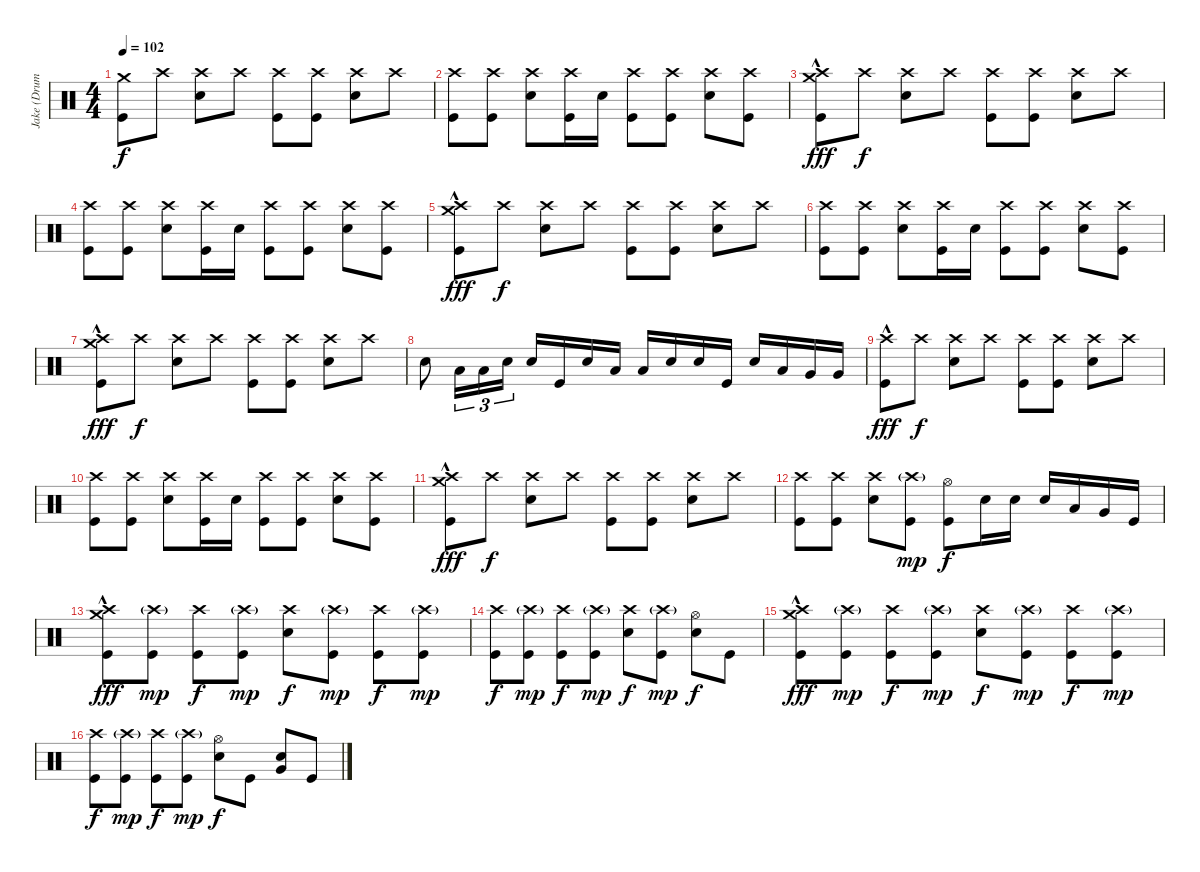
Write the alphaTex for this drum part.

\track ("Jake (Drums)" "Jake (Drum") {instrument percussion}
\staff {score}
\articulation defaults
\ts (4 4)
\tempo 102
\clef neutral
\ks c
("Crash medium (hit)" "Kick (hit)").8{dy f} "Crash high (hit)".8 ("Crash high (hit)" "Snare (hit) 2").8 "Crash high (hit)".8 ("Crash high (hit)" "Kick (hit)").8 ("Crash high (hit)" "Kick (hit)").8 ("Crash high (hit)" "Snare (hit) 2").8 "Crash high (hit)".8 |
("Crash high (hit)" "Kick (hit)").8 ("Crash high (hit)" "Kick (hit)").8 ("Crash high (hit)" "Snare (hit) 2").8 ("Crash high (hit)" "Kick (hit)").16 "Snare (hit) 2".16 ("Crash high (hit)" "Kick (hit)").8 ("Crash high (hit)" "Kick (hit)").8 ("Crash high (hit)" "Snare (hit) 2").8 ("Crash high (hit)" "Kick (hit)").8 |
("Crash high (hit)"{hac} "Crash medium (hit)" "Kick (hit)").8{dy fff} "Crash high (hit)".8{dy f} ("Crash high (hit)" "Snare (hit) 2").8 "Crash high (hit)".8 ("Crash high (hit)" "Kick (hit)").8 ("Crash high (hit)" "Kick (hit)").8 ("Crash high (hit)" "Snare (hit) 2").8 "Crash high (hit)".8 |
("Crash high (hit)" "Kick (hit)").8 ("Crash high (hit)" "Kick (hit)").8 ("Crash high (hit)" "Snare (hit) 2").8 ("Crash high (hit)" "Kick (hit)").16 "Snare (hit) 2".16 ("Crash high (hit)" "Kick (hit)").8 ("Crash high (hit)" "Kick (hit)").8 ("Crash high (hit)" "Snare (hit) 2").8 ("Crash high (hit)" "Kick (hit)").8 |
("Crash high (hit)"{hac} "Crash medium (hit)" "Kick (hit)").8{dy fff} "Crash high (hit)".8{dy f} ("Crash high (hit)" "Snare (hit) 2").8 "Crash high (hit)".8 ("Crash high (hit)" "Kick (hit)").8 ("Crash high (hit)" "Kick (hit)").8 ("Crash high (hit)" "Snare (hit) 2").8 "Crash high (hit)".8 |
("Crash high (hit)" "Kick (hit)").8 ("Crash high (hit)" "Kick (hit)").8 ("Crash high (hit)" "Snare (hit) 2").8 ("Crash high (hit)" "Kick (hit)").16 "Snare (hit) 2".16 ("Crash high (hit)" "Kick (hit)").8 ("Crash high (hit)" "Kick (hit)").8 ("Crash high (hit)" "Snare (hit) 2").8 ("Crash high (hit)" "Kick (hit)").8 |
("Crash high (hit)"{hac} "Crash medium (hit)" "Kick (hit)").8{dy fff} "Crash high (hit)".8{dy f} ("Crash high (hit)" "Snare (hit) 2").8 "Crash high (hit)".8 ("Crash high (hit)" "Kick (hit)").8 ("Crash high (hit)" "Kick (hit)").8 ("Crash high (hit)" "Snare (hit) 2").8 "Crash high (hit)".8 |
"Snare (hit) 2".8 "Low Tom (hit)".16{tu (3 2)} "Low Tom (hit)".16{tu (3 2)} "Snare (hit) 2".16{tu (3 2)} "Snare (hit) 2".16 "Kick (hit)".16 "Snare (hit) 2".16 "Low Tom (hit)".16 "Low Tom (hit)".16 "Snare (hit) 2".16 "Snare (hit) 2".16 "Kick (hit)".16 "Snare (hit) 2".16 "Low Tom (hit)".16 "Very Low Tom (hit)".16 "Very Low Tom (hit)".16 |
("Crash high (hit)"{hac} "Kick (hit)").8{dy fff} "Crash high (hit)".8{dy f} ("Crash high (hit)" "Snare (hit) 2").8 "Crash high (hit)".8 ("Crash high (hit)" "Kick (hit)").8 ("Crash high (hit)" "Kick (hit)").8 ("Crash high (hit)" "Snare (hit) 2").8 "Crash high (hit)".8 |
("Crash high (hit)" "Kick (hit)").8 ("Crash high (hit)" "Kick (hit)").8 ("Crash high (hit)" "Snare (hit) 2").8 ("Crash high (hit)" "Kick (hit)").16 "Snare (hit) 2".16 ("Crash high (hit)" "Kick (hit)").8 ("Crash high (hit)" "Kick (hit)").8 ("Crash high (hit)" "Snare (hit) 2").8 ("Crash high (hit)" "Kick (hit)").8 |
("Crash high (hit)"{hac} "Crash medium (hit)" "Kick (hit)").8{dy fff} "Crash high (hit)".8{dy f} ("Crash high (hit)" "Snare (hit) 2").8 "Crash high (hit)".8 ("Crash high (hit)" "Kick (hit)").8 ("Crash high (hit)" "Kick (hit)").8 ("Crash high (hit)" "Snare (hit) 2").8 "Crash high (hit)".8 |
("Crash high (hit)" "Kick (hit)").8 ("Crash high (hit)" "Kick (hit)").8 ("Crash high (hit)" "Snare (hit) 2").8 ("Crash high (hit)"{g} "Kick (hit)").8{dy mp} ("Hi-Hat (open)" "Kick (hit)").8{dy f} "Snare (hit) 2".16 "Snare (hit) 2".16 "Snare (hit) 2".16 "Low Tom (hit)".16 "Very Low Tom (hit)".16 "Kick (hit)".16 |
("Crash high (hit)"{hac} "Crash medium (hit)" "Kick (hit)").8{dy fff} ("Crash high (hit)"{g} "Kick (hit)").8{dy mp} ("Crash high (hit)" "Kick (hit)").8{dy f} ("Crash high (hit)"{g} "Kick (hit)").8{dy mp} ("Crash high (hit)" "Snare (hit) 2").8{dy f} ("Crash high (hit)"{g} "Kick (hit)").8{dy mp} ("Crash high (hit)" "Kick (hit)").8{dy f} ("Crash high (hit)"{g} "Kick (hit)").8{dy mp} |
("Crash high (hit)" "Kick (hit)").8{dy f} ("Crash high (hit)"{g} "Kick (hit)").8{dy mp} ("Crash high (hit)" "Kick (hit)").8{dy f} ("Crash high (hit)"{g} "Kick (hit)").8{dy mp} ("Crash high (hit)" "Snare (hit) 2").8{dy f} ("Crash high (hit)"{g} "Kick (hit)").8{dy mp} ("Hi-Hat (open)" "Snare (hit) 2").8{dy f} "Kick (hit)".8 |
("Crash high (hit)"{hac} "Crash medium (hit)" "Kick (hit)").8{dy fff} ("Crash high (hit)"{g} "Kick (hit)").8{dy mp} ("Crash high (hit)" "Kick (hit)").8{dy f} ("Crash high (hit)"{g} "Kick (hit)").8{dy mp} ("Crash high (hit)" "Snare (hit) 2").8{dy f} ("Crash high (hit)"{g} "Kick (hit)").8{dy mp} ("Crash high (hit)" "Kick (hit)").8{dy f} ("Crash high (hit)"{g} "Kick (hit)").8{dy mp} |
("Crash high (hit)" "Kick (hit)").8{dy f} ("Crash high (hit)"{g} "Kick (hit)").8{dy mp} ("Crash high (hit)" "Kick (hit)").8{dy f} ("Crash high (hit)"{g} "Kick (hit)").8{dy mp} ("Hi-Hat (open)" "Snare (hit) 2").8{dy f} "Kick (hit)".8 ("Snare (hit) 2" "Very Low Tom (hit)").8 "Kick (hit)".8
